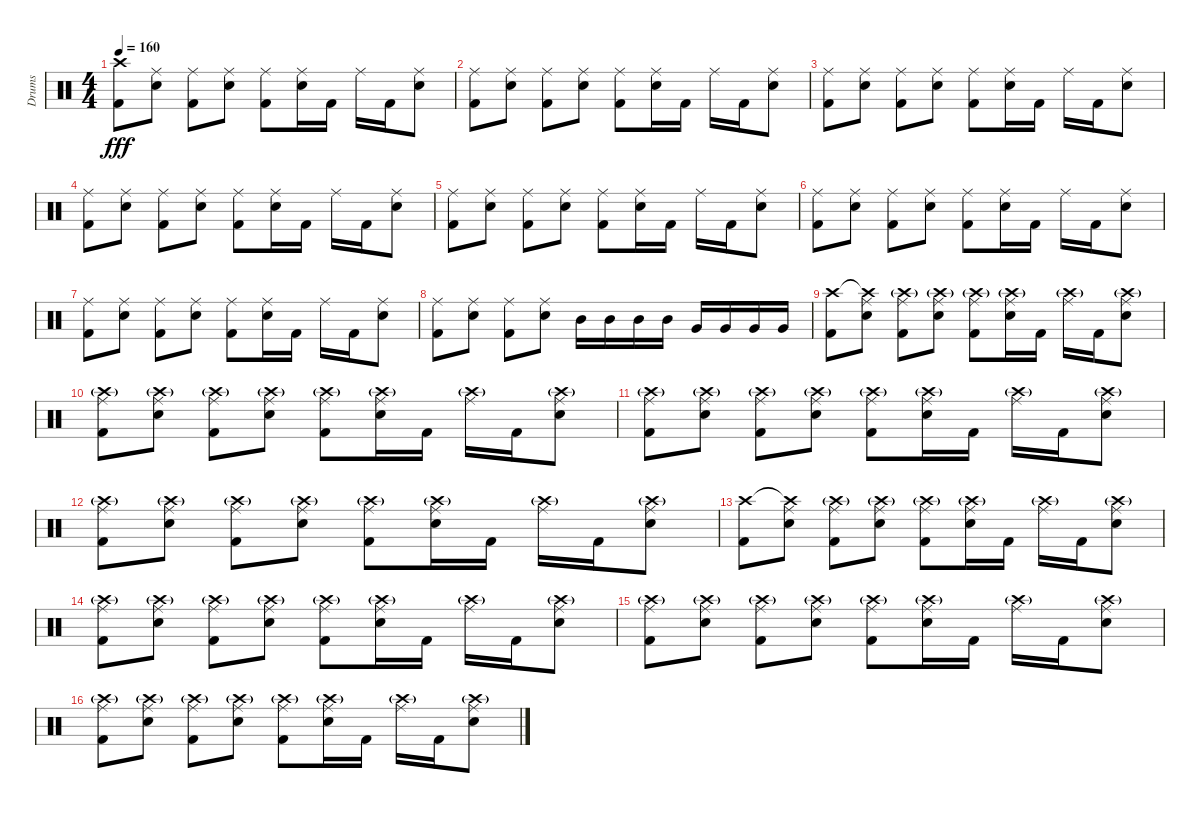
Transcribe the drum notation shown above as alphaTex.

\track ("Drums" "Drums") {instrument percussion}
\staff {score}
\articulation defaults
\ts (4 4)
\tempo 160
\clef neutral
\ks c
("Crash high (hit)" "Kick (hit) 2").8{dy fff} ("Ride (middle)" "Electric Snare (hit)").8 ("Ride (middle)" "Kick (hit) 2").8 ("Ride (middle)" "Electric Snare (hit)").8 ("Ride (middle)" "Kick (hit) 2").8 ("Ride (middle)" "Electric Snare (hit)").16 "Kick (hit) 2".16 "Ride (middle)".16 "Kick (hit) 2".16 ("Ride (middle)" "Electric Snare (hit)").8 |
("Ride (middle)" "Kick (hit) 2").8 ("Ride (middle)" "Electric Snare (hit)").8 ("Ride (middle)" "Kick (hit) 2").8 ("Ride (middle)" "Electric Snare (hit)").8 ("Ride (middle)" "Kick (hit) 2").8 ("Ride (middle)" "Electric Snare (hit)").16 "Kick (hit) 2".16 "Ride (middle)".16 "Kick (hit) 2".16 ("Ride (middle)" "Electric Snare (hit)").8 |
("Ride (middle)" "Kick (hit) 2").8 ("Ride (middle)" "Electric Snare (hit)").8 ("Ride (middle)" "Kick (hit) 2").8 ("Ride (middle)" "Electric Snare (hit)").8 ("Ride (middle)" "Kick (hit) 2").8 ("Ride (middle)" "Electric Snare (hit)").16 "Kick (hit) 2".16 "Ride (middle)".16 "Kick (hit) 2".16 ("Ride (middle)" "Electric Snare (hit)").8 |
("Ride (middle)" "Kick (hit) 2").8 ("Ride (middle)" "Electric Snare (hit)").8 ("Ride (middle)" "Kick (hit) 2").8 ("Ride (middle)" "Electric Snare (hit)").8 ("Ride (middle)" "Kick (hit) 2").8 ("Ride (middle)" "Electric Snare (hit)").16 "Kick (hit) 2".16 "Ride (middle)".16 "Kick (hit) 2".16 ("Ride (middle)" "Electric Snare (hit)").8 |
("Ride (middle)" "Kick (hit) 2").8 ("Ride (middle)" "Electric Snare (hit)").8 ("Ride (middle)" "Kick (hit) 2").8 ("Ride (middle)" "Electric Snare (hit)").8 ("Ride (middle)" "Kick (hit) 2").8 ("Ride (middle)" "Electric Snare (hit)").16 "Kick (hit) 2".16 "Ride (middle)".16 "Kick (hit) 2".16 ("Ride (middle)" "Electric Snare (hit)").8 |
("Ride (middle)" "Kick (hit) 2").8 ("Ride (middle)" "Electric Snare (hit)").8 ("Ride (middle)" "Kick (hit) 2").8 ("Ride (middle)" "Electric Snare (hit)").8 ("Ride (middle)" "Kick (hit) 2").8 ("Ride (middle)" "Electric Snare (hit)").16 "Kick (hit) 2".16 "Ride (middle)".16 "Kick (hit) 2".16 ("Ride (middle)" "Electric Snare (hit)").8 |
("Ride (middle)" "Kick (hit) 2").8 ("Ride (middle)" "Electric Snare (hit)").8 ("Ride (middle)" "Kick (hit) 2").8 ("Ride (middle)" "Electric Snare (hit)").8 ("Ride (middle)" "Kick (hit) 2").8 ("Ride (middle)" "Electric Snare (hit)").16 "Kick (hit) 2".16 "Ride (middle)".16 "Kick (hit) 2".16 ("Ride (middle)" "Electric Snare (hit)").8 |
("Ride (middle)" "Kick (hit) 2").8 ("Ride (middle)" "Electric Snare (hit)").8 ("Ride (middle)" "Kick (hit) 2").8 ("Ride (middle)" "Electric Snare (hit)").8 "Mid Tom (hit)".16 "Mid Tom (hit)".16 "Mid Tom (hit)".16 "Mid Tom (hit)".16 "Very Low Tom (hit)".16 "Very Low Tom (hit)".16 "Very Low Tom (hit)".16 "Very Low Tom (hit)".16 |
("Crash high (hit)" "Kick (hit) 2").8 ("Crash high (hit)"{t} "Ride (middle)" "Electric Snare (hit)").8 ("Crash high (hit)"{g} "Ride (middle)" "Kick (hit) 2").8 ("Crash high (hit)"{g} "Ride (middle)" "Electric Snare (hit)").8 ("Crash high (hit)"{g} "Ride (middle)" "Kick (hit) 2").8 ("Crash high (hit)"{g} "Ride (middle)" "Electric Snare (hit)").16 "Kick (hit) 2".16 ("Crash high (hit)"{g} "Ride (middle)").16 "Kick (hit) 2".16 ("Crash high (hit)"{g} "Ride (middle)" "Electric Snare (hit)").8 |
("Crash high (hit)"{g} "Ride (middle)" "Kick (hit) 2").8 ("Crash high (hit)"{g} "Ride (middle)" "Electric Snare (hit)").8 ("Crash high (hit)"{g} "Ride (middle)" "Kick (hit) 2").8 ("Crash high (hit)"{g} "Ride (middle)" "Electric Snare (hit)").8 ("Crash high (hit)"{g} "Ride (middle)" "Kick (hit) 2").8 ("Crash high (hit)"{g} "Ride (middle)" "Electric Snare (hit)").16 "Kick (hit) 2".16 ("Crash high (hit)"{g} "Ride (middle)").16 "Kick (hit) 2".16 ("Crash high (hit)"{g} "Ride (middle)" "Electric Snare (hit)").8 |
("Crash high (hit)"{g} "Ride (middle)" "Kick (hit) 2").8 ("Crash high (hit)"{g} "Ride (middle)" "Electric Snare (hit)").8 ("Crash high (hit)"{g} "Ride (middle)" "Kick (hit) 2").8 ("Crash high (hit)"{g} "Ride (middle)" "Electric Snare (hit)").8 ("Crash high (hit)"{g} "Ride (middle)" "Kick (hit) 2").8 ("Crash high (hit)"{g} "Ride (middle)" "Electric Snare (hit)").16 "Kick (hit) 2".16 ("Crash high (hit)"{g} "Ride (middle)").16 "Kick (hit) 2".16 ("Crash high (hit)"{g} "Ride (middle)" "Electric Snare (hit)").8 |
("Crash high (hit)"{g} "Ride (middle)" "Kick (hit) 2").8 ("Crash high (hit)"{g} "Ride (middle)" "Electric Snare (hit)").8 ("Crash high (hit)"{g} "Ride (middle)" "Kick (hit) 2").8 ("Crash high (hit)"{g} "Ride (middle)" "Electric Snare (hit)").8 ("Crash high (hit)"{g} "Ride (middle)" "Kick (hit) 2").8 ("Crash high (hit)"{g} "Ride (middle)" "Electric Snare (hit)").16 "Kick (hit) 2".16 ("Crash high (hit)"{g} "Ride (middle)").16 "Kick (hit) 2".16 ("Crash high (hit)"{g} "Ride (middle)" "Electric Snare (hit)").8 |
("Crash high (hit)" "Kick (hit) 2").8 ("Crash high (hit)"{t} "Ride (middle)" "Electric Snare (hit)").8 ("Crash high (hit)"{g} "Ride (middle)" "Kick (hit) 2").8 ("Crash high (hit)"{g} "Ride (middle)" "Electric Snare (hit)").8 ("Crash high (hit)"{g} "Ride (middle)" "Kick (hit) 2").8 ("Crash high (hit)"{g} "Ride (middle)" "Electric Snare (hit)").16 "Kick (hit) 2".16 ("Crash high (hit)"{g} "Ride (middle)").16 "Kick (hit) 2".16 ("Crash high (hit)"{g} "Ride (middle)" "Electric Snare (hit)").8 |
("Crash high (hit)"{g} "Ride (middle)" "Kick (hit) 2").8 ("Crash high (hit)"{g} "Ride (middle)" "Electric Snare (hit)").8 ("Crash high (hit)"{g} "Ride (middle)" "Kick (hit) 2").8 ("Crash high (hit)"{g} "Ride (middle)" "Electric Snare (hit)").8 ("Crash high (hit)"{g} "Ride (middle)" "Kick (hit) 2").8 ("Crash high (hit)"{g} "Ride (middle)" "Electric Snare (hit)").16 "Kick (hit) 2".16 ("Crash high (hit)"{g} "Ride (middle)").16 "Kick (hit) 2".16 ("Crash high (hit)"{g} "Ride (middle)" "Electric Snare (hit)").8 |
("Crash high (hit)"{g} "Ride (middle)" "Kick (hit) 2").8 ("Crash high (hit)"{g} "Ride (middle)" "Electric Snare (hit)").8 ("Crash high (hit)"{g} "Ride (middle)" "Kick (hit) 2").8 ("Crash high (hit)"{g} "Ride (middle)" "Electric Snare (hit)").8 ("Crash high (hit)"{g} "Ride (middle)" "Kick (hit) 2").8 ("Crash high (hit)"{g} "Ride (middle)" "Electric Snare (hit)").16 "Kick (hit) 2".16 ("Crash high (hit)"{g} "Ride (middle)").16 "Kick (hit) 2".16 ("Crash high (hit)"{g} "Ride (middle)" "Electric Snare (hit)").8 |
("Crash high (hit)"{g} "Ride (middle)" "Kick (hit) 2").8 ("Crash high (hit)"{g} "Ride (middle)" "Electric Snare (hit)").8 ("Crash high (hit)"{g} "Ride (middle)" "Kick (hit) 2").8 ("Crash high (hit)"{g} "Ride (middle)" "Electric Snare (hit)").8 ("Crash high (hit)"{g} "Ride (middle)" "Kick (hit) 2").8 ("Crash high (hit)"{g} "Ride (middle)" "Electric Snare (hit)").16 "Kick (hit) 2".16 ("Crash high (hit)"{g} "Ride (middle)").16 "Kick (hit) 2".16 ("Crash high (hit)"{g} "Ride (middle)" "Electric Snare (hit)").8
